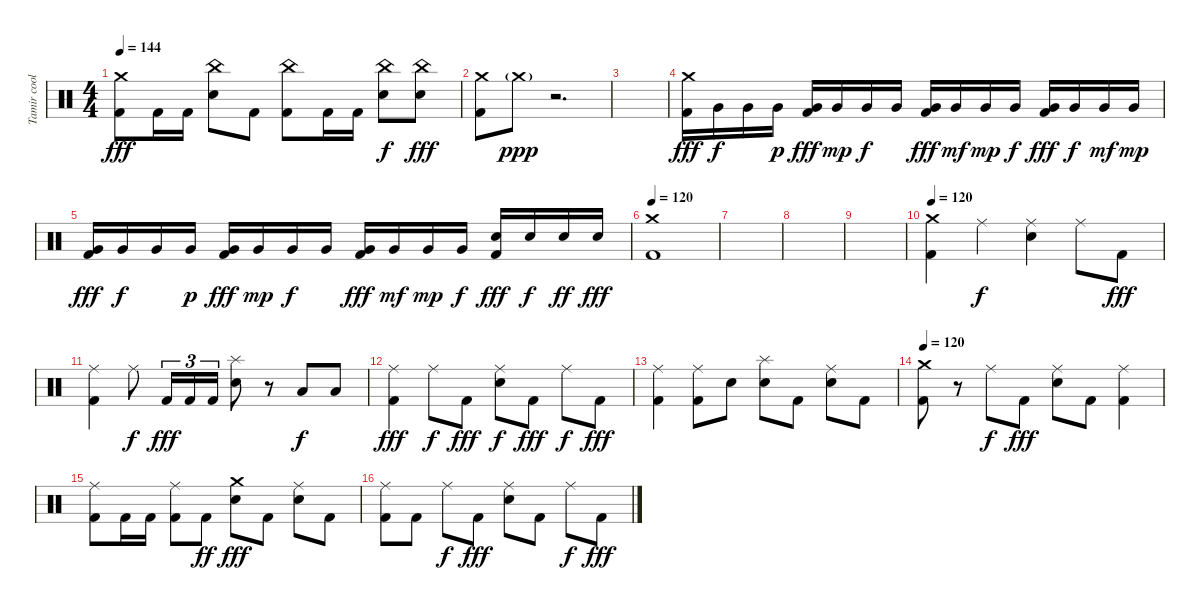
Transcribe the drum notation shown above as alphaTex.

\track ("Tamir coolberg" "Tamir cool") {instrument percussion}
\staff {score}
\articulation defaults
\ts (4 4)
\tempo 144
\clef neutral
\ks c
("Crash medium (hit)" "Kick (hit) 2").8{dy fff} "Kick (hit) 2".16 "Kick (hit) 2".16 ("China (hit)" "Electric Snare (hit)").8 "Kick (hit) 2".8 ("China (hit)" "Kick (hit) 2").8 "Kick (hit) 2".16 "Kick (hit) 2".16 ("China (hit)" "Electric Snare (hit)").8{dy f} ("China (hit)" "Electric Snare (hit)").8{dy fff} |
("Crash medium (hit)" "Kick (hit) 2").8 "Crash medium (hit)"{g}.8{dy ppp} r.2{d} |
|
("Crash medium (hit)" "Kick (hit) 2").16{dy fff} "Very Low Tom (hit)".16{dy f} "Very Low Tom (hit)".16 "Very Low Tom (hit)".16{dy p} ("Very Low Tom (hit)" "Kick (hit) 2").16{dy fff} "Very Low Tom (hit)".16{dy mp} "Very Low Tom (hit)".16{dy f} "Very Low Tom (hit)".16 ("Very Low Tom (hit)" "Kick (hit) 2").16{dy fff} "Very Low Tom (hit)".16{dy mf} "Very Low Tom (hit)".16{dy mp} "Very Low Tom (hit)".16{dy f} ("Very Low Tom (hit)" "Kick (hit) 2").16{dy fff} "Very Low Tom (hit)".16{dy f} "Very Low Tom (hit)".16{dy mf} "Very Low Tom (hit)".16{dy mp} |
("Very Low Tom (hit)" "Kick (hit) 2").16{dy fff} "Very Low Tom (hit)".16{dy f} "Very Low Tom (hit)".16 "Very Low Tom (hit)".16{dy p} ("Very Low Tom (hit)" "Kick (hit) 2").16{dy fff} "Very Low Tom (hit)".16{dy mp} "Very Low Tom (hit)".16{dy f} "Very Low Tom (hit)".16 ("Very Low Tom (hit)" "Kick (hit) 2").16{dy fff} "Very Low Tom (hit)".16{dy mf} "Very Low Tom (hit)".16{dy mp} "Very Low Tom (hit)".16{dy f} ("Electric Snare (hit)" "Kick (hit) 2").16{dy fff} "Electric Snare (hit)".16{dy f} "Electric Snare (hit)".16{dy ff} "Electric Snare (hit)".16{dy fff} |
\tempo 120
("Crash medium (hit)" "Kick (hit) 2").1 |
|
|
|
\tempo 120
("Crash medium (hit)" "Kick (hit) 2").4 "Ride (middle)".4{dy f} ("Ride (middle)" "Electric Snare (hit)").4 "Ride (middle)".8 "Kick (hit) 2".8{dy fff} |
("Ride (middle)" "Kick (hit) 2").4 "Ride (middle)".8{dy f} "Kick (hit) 2".16{tu (3 2) dy fff} "Kick (hit) 2".16{tu (3 2)} "Kick (hit) 2".16{tu (3 2)} ("Splash (hit)" "Electric Snare (hit)").8 r.8 "Low Tom (hit)".8{dy f} "Low Tom (hit)".8 |
("Ride (middle)" "Kick (hit) 2").4{dy fff} "Ride (middle)".8{dy f} "Kick (hit) 2".8{dy fff} ("Ride (middle)" "Electric Snare (hit)").8{dy f} "Kick (hit) 2".8{dy fff} "Ride (middle)".8{dy f} "Kick (hit) 2".8{dy fff} |
("Ride (middle)" "Kick (hit) 2").4 ("Ride (middle)" "Kick (hit) 2").8 "Electric Snare (hit)".8 ("Splash (hit)" "Electric Snare (hit)").8 "Kick (hit) 2".8 ("Ride (middle)" "Electric Snare (hit)").8 "Kick (hit) 2".8 |
\tempo 120
("Crash medium (hit)" "Kick (hit) 2").8 r.8 "Ride (middle)".8{dy f} "Kick (hit) 2".8{dy fff} ("Ride (middle)" "Electric Snare (hit)").8 "Kick (hit) 2".8 ("Ride (middle)" "Kick (hit) 2").4 |
("Ride (middle)" "Kick (hit) 2").8 "Kick (hit) 2".16 "Kick (hit) 2".16 ("Ride (middle)" "Kick (hit) 2").8 "Kick (hit) 2".8{dy ff} ("Crash medium (hit)" "Electric Snare (hit)").8{dy fff} "Kick (hit) 2".8 ("Ride (middle)" "Electric Snare (hit)").8 "Kick (hit) 2".8 |
("Ride (middle)" "Kick (hit) 2").8 "Kick (hit) 2".8 "Ride (middle)".8{dy f} "Kick (hit) 2".8{dy fff} ("Ride (middle)" "Electric Snare (hit)").8 "Kick (hit) 2".8 "Ride (middle)".8{dy f} "Kick (hit) 2".8{dy fff}
